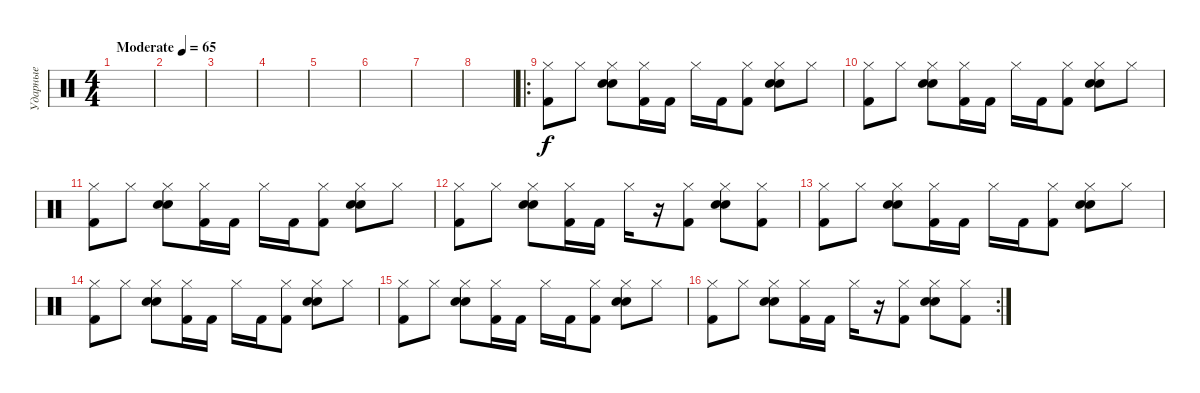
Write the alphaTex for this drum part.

\track ("Ударные" "Ударные") {instrument percussion}
\staff {score}
\articulation defaults
\ts (4 4)
\tempo (65 "Moderate")
\clef neutral
\ks c
|
|
|
|
|
|
|
|
\ro
("Hi-Hat (closed)" "Kick (hit) 2").8 "Hi-Hat (closed)".8 ("Hi-Hat (closed)" "Electric Snare (hit)" "Hand Clap (hit)").8 ("Hi-Hat (closed)" "Kick (hit) 2").16 "Kick (hit) 2".16 "Hi-Hat (closed)".16 "Kick (hit) 2".16 ("Hi-Hat (closed)" "Kick (hit) 2").8 ("Hi-Hat (closed)" "Electric Snare (hit)" "Hand Clap (hit)").8 "Hi-Hat (closed)".8 |
("Hi-Hat (closed)" "Kick (hit) 2").8 "Hi-Hat (closed)".8 ("Hi-Hat (closed)" "Electric Snare (hit)" "Hand Clap (hit)").8 ("Hi-Hat (closed)" "Kick (hit) 2").16 "Kick (hit) 2".16 "Hi-Hat (closed)".16 "Kick (hit) 2".16 ("Hi-Hat (closed)" "Kick (hit) 2").8 ("Hi-Hat (closed)" "Electric Snare (hit)" "Hand Clap (hit)").8 "Hi-Hat (closed)".8 |
("Hi-Hat (closed)" "Kick (hit) 2").8 "Hi-Hat (closed)".8 ("Hi-Hat (closed)" "Electric Snare (hit)" "Hand Clap (hit)").8 ("Hi-Hat (closed)" "Kick (hit) 2").16 "Kick (hit) 2".16 "Hi-Hat (closed)".16 "Kick (hit) 2".16 ("Hi-Hat (closed)" "Kick (hit) 2").8 ("Hi-Hat (closed)" "Electric Snare (hit)" "Hand Clap (hit)").8 "Hi-Hat (closed)".8 |
("Hi-Hat (closed)" "Kick (hit) 2").8 "Hi-Hat (closed)".8 ("Hi-Hat (closed)" "Electric Snare (hit)" "Hand Clap (hit)").8 ("Hi-Hat (closed)" "Kick (hit) 2").16 "Kick (hit) 2".16 "Hi-Hat (closed)".16 r.16 ("Hi-Hat (closed)" "Kick (hit) 2").8 ("Hi-Hat (closed)" "Electric Snare (hit)" "Hand Clap (hit)").8 ("Hi-Hat (closed)" "Kick (hit) 2").8 |
("Hi-Hat (closed)" "Kick (hit) 2").8 "Hi-Hat (closed)".8 ("Hi-Hat (closed)" "Electric Snare (hit)" "Hand Clap (hit)").8 ("Hi-Hat (closed)" "Kick (hit) 2").16 "Kick (hit) 2".16 "Hi-Hat (closed)".16 "Kick (hit) 2".16 ("Hi-Hat (closed)" "Kick (hit) 2").8 ("Hi-Hat (closed)" "Electric Snare (hit)" "Hand Clap (hit)").8 "Hi-Hat (closed)".8 |
("Hi-Hat (closed)" "Kick (hit) 2").8 "Hi-Hat (closed)".8 ("Hi-Hat (closed)" "Electric Snare (hit)" "Hand Clap (hit)").8 ("Hi-Hat (closed)" "Kick (hit) 2").16 "Kick (hit) 2".16 "Hi-Hat (closed)".16 "Kick (hit) 2".16 ("Hi-Hat (closed)" "Kick (hit) 2").8 ("Hi-Hat (closed)" "Electric Snare (hit)" "Hand Clap (hit)").8 "Hi-Hat (closed)".8 |
("Hi-Hat (closed)" "Kick (hit) 2").8 "Hi-Hat (closed)".8 ("Hi-Hat (closed)" "Electric Snare (hit)" "Hand Clap (hit)").8 ("Hi-Hat (closed)" "Kick (hit) 2").16 "Kick (hit) 2".16 "Hi-Hat (closed)".16 "Kick (hit) 2".16 ("Hi-Hat (closed)" "Kick (hit) 2").8 ("Hi-Hat (closed)" "Electric Snare (hit)" "Hand Clap (hit)").8 "Hi-Hat (closed)".8 |
\rc 2
("Hi-Hat (closed)" "Kick (hit) 2").8 "Hi-Hat (closed)".8 ("Hi-Hat (closed)" "Electric Snare (hit)" "Hand Clap (hit)").8 ("Hi-Hat (closed)" "Kick (hit) 2").16 "Kick (hit) 2".16 "Hi-Hat (closed)".16 r.16 ("Hi-Hat (closed)" "Kick (hit) 2").8 ("Hi-Hat (closed)" "Electric Snare (hit)" "Hand Clap (hit)").8 ("Hi-Hat (closed)" "Kick (hit) 2").8
